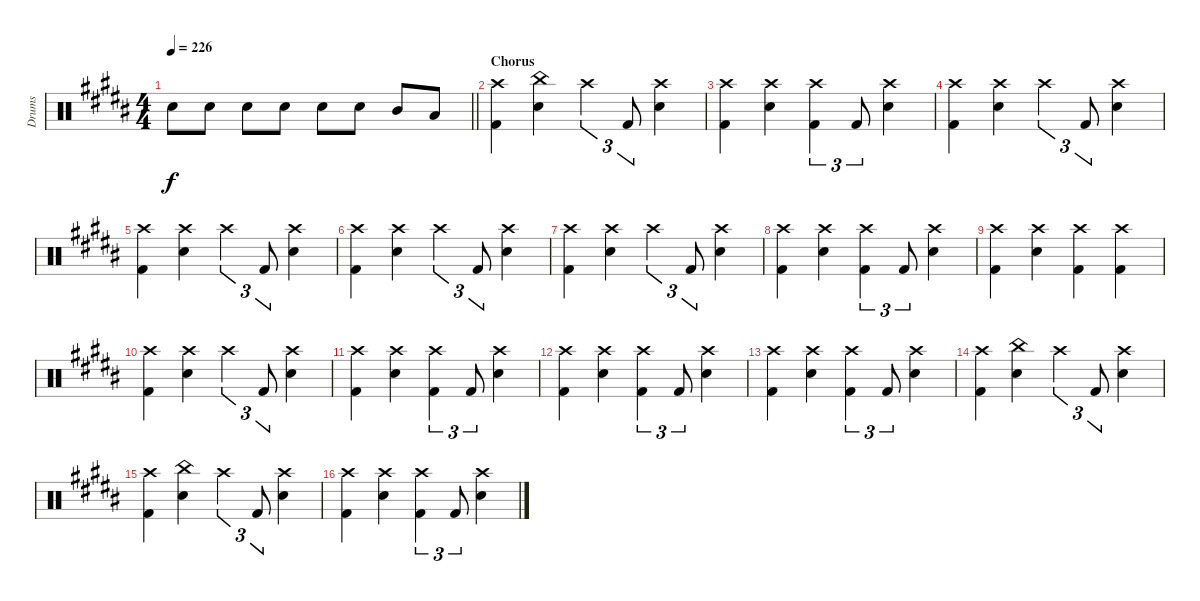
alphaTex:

\track ("Drums" "Drums") {instrument percussion}
\staff {score}
\articulation defaults
\ts (4 4)
\tempo 226
\clef neutral
\barLineRight lightlight
\ks b "Snare (hit) 2".8{dy f} "Snare (hit) 2".8 "Snare (hit) 2".8 "Snare (hit) 2".8 "Snare (hit) 2".8 "Snare (hit) 2".8 "Mid Tom (hit)".8 "Low Tom (hit)".8
|
\section ("" "Chorus")
("Crash high (hit)" "Kick (hit) 2").4 ("China (hit)" "Snare (hit) 2").4 "Crash high (hit)".4{tu (3 2)} "Kick (hit) 2".8{tu (3 2)} ("Crash high (hit)" "Snare (hit) 2").4 |
("Crash high (hit)" "Kick (hit) 2").4 ("Crash high (hit)" "Snare (hit) 2").4 ("Crash high (hit)" "Kick (hit) 2").4{tu (3 2)} "Kick (hit) 2".8{tu (3 2)} ("Crash high (hit)" "Snare (hit) 2").4 |
("Crash high (hit)" "Kick (hit) 2").4 ("Crash high (hit)" "Snare (hit) 2").4 "Crash high (hit)".4{tu (3 2)} "Kick (hit) 2".8{tu (3 2)} ("Crash high (hit)" "Snare (hit) 2").4 |
("Crash high (hit)" "Kick (hit) 2").4 ("Crash high (hit)" "Snare (hit) 2").4 "Crash high (hit)".4{tu (3 2)} "Kick (hit) 2".8{tu (3 2)} ("Crash high (hit)" "Snare (hit) 2").4 |
("Crash high (hit)" "Kick (hit) 2").4 ("Crash high (hit)" "Snare (hit) 2").4 "Crash high (hit)".4{tu (3 2)} "Kick (hit) 2".8{tu (3 2)} ("Crash high (hit)" "Snare (hit) 2").4 |
("Crash high (hit)" "Kick (hit) 2").4 ("Crash high (hit)" "Snare (hit) 2").4 "Crash high (hit)".4{tu (3 2)} "Kick (hit) 2".8{tu (3 2)} ("Crash high (hit)" "Snare (hit) 2").4 |
("Crash high (hit)" "Kick (hit) 2").4 ("Crash high (hit)" "Snare (hit) 2").4 ("Crash high (hit)" "Kick (hit) 2").4{tu (3 2)} "Kick (hit) 2".8{tu (3 2)} ("Crash high (hit)" "Snare (hit) 2").4 |
("Crash high (hit)" "Kick (hit) 2").4 ("Crash high (hit)" "Snare (hit) 2").4 ("Crash high (hit)" "Kick (hit) 2").4 ("Crash high (hit)" "Kick (hit) 2").4 |
("Crash high (hit)" "Kick (hit) 2").4 ("Crash high (hit)" "Snare (hit) 2").4 "Crash high (hit)".4{tu (3 2)} "Kick (hit) 2".8{tu (3 2)} ("Crash high (hit)" "Snare (hit) 2").4 |
("Crash high (hit)" "Kick (hit) 2").4 ("Crash high (hit)" "Snare (hit) 2").4 ("Crash high (hit)" "Kick (hit) 2").4{tu (3 2)} "Kick (hit) 2".8{tu (3 2)} ("Crash high (hit)" "Snare (hit) 2").4 |
("Crash high (hit)" "Kick (hit) 2").4 ("Crash high (hit)" "Snare (hit) 2").4 ("Crash high (hit)" "Kick (hit) 2").4{tu (3 2)} "Kick (hit) 2".8{tu (3 2)} ("Crash high (hit)" "Snare (hit) 2").4 |
("Crash high (hit)" "Kick (hit) 2").4 ("Crash high (hit)" "Snare (hit) 2").4 ("Crash high (hit)" "Kick (hit) 2").4{tu (3 2)} "Kick (hit) 2".8{tu (3 2)} ("Crash high (hit)" "Snare (hit) 2").4 |
("Crash high (hit)" "Kick (hit) 2").4 ("China (hit)" "Snare (hit) 2").4 "Crash high (hit)".4{tu (3 2)} "Kick (hit) 2".8{tu (3 2)} ("Crash high (hit)" "Snare (hit) 2").4 |
("Crash high (hit)" "Kick (hit) 2").4 ("China (hit)" "Snare (hit) 2").4 "Crash high (hit)".4{tu (3 2)} "Kick (hit) 2".8{tu (3 2)} ("Crash high (hit)" "Snare (hit) 2").4 |
("Crash high (hit)" "Kick (hit) 2").4 ("Crash high (hit)" "Snare (hit) 2").4 ("Crash high (hit)" "Kick (hit) 2").4{tu (3 2)} "Kick (hit) 2".8{tu (3 2)} ("Crash high (hit)" "Snare (hit) 2").4
